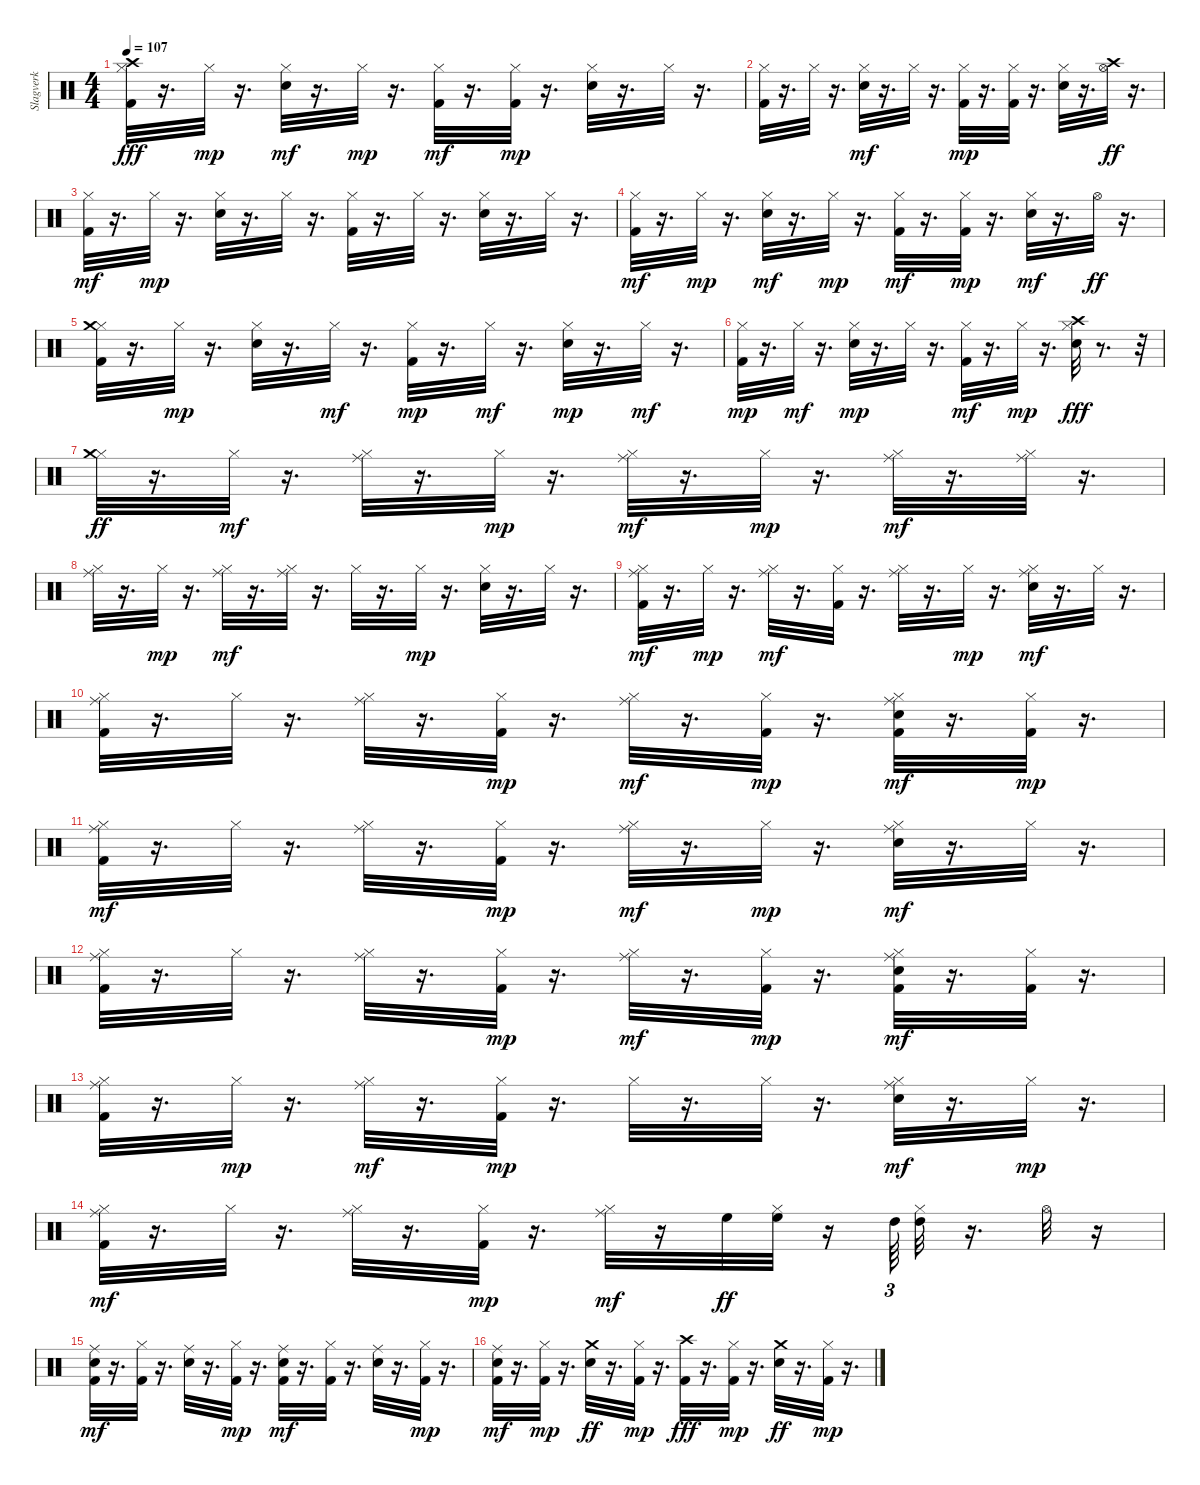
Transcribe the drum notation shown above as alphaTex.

\track ("Slagverk" "Slagverk") {instrument percussion}
\staff {score}
\articulation defaults
\ts (4 4)
\tempo 107
\clef neutral
\ks c
("Kick (hit) 2" "Hi-Hat (closed)" "Crash high (hit)").32{dy fff} r.16{d} "Hi-Hat (closed)".32{dy mp} r.16{d} ("Snare (hit) 2" "Hi-Hat (closed)").32{dy mf} r.16{d} "Hi-Hat (closed)".32{dy mp} r.16{d} ("Kick (hit) 2" "Hi-Hat (closed)").32{dy mf} r.16{d} ("Kick (hit) 2" "Hi-Hat (closed)").32{dy mp} r.16{d} ("Snare (hit) 2" "Hi-Hat (closed)").32 r.16{d} "Hi-Hat (closed)".32 r.16{d} |
("Kick (hit) 2" "Hi-Hat (closed)").32 r.16{d} "Hi-Hat (closed)".32 r.16{d} ("Snare (hit) 2" "Hi-Hat (closed)").32{dy mf} r.16{d} "Hi-Hat (closed)".32 r.16{d} ("Kick (hit) 2" "Hi-Hat (closed)").32{dy mp} r.16{d} ("Kick (hit) 2" "Hi-Hat (closed)").32 r.16{d} ("Snare (hit) 2" "Hi-Hat (closed)").32 r.16{d} ("Hi-Hat (open)" "Crash high (hit)").32{dy ff} r.16{d} |
("Kick (hit) 2" "Hi-Hat (closed)").32{dy mf} r.16{d} "Hi-Hat (closed)".32{dy mp} r.16{d} ("Snare (hit) 2" "Hi-Hat (closed)").32 r.16{d} "Hi-Hat (closed)".32 r.16{d} ("Kick (hit) 2" "Hi-Hat (closed)").32 r.16{d} "Hi-Hat (closed)".32 r.16{d} ("Snare (hit) 2" "Hi-Hat (closed)").32 r.16{d} "Hi-Hat (closed)".32 r.16{d} |
("Kick (hit) 2" "Hi-Hat (closed)").32{dy mf} r.16{d} "Hi-Hat (closed)".32{dy mp} r.16{d} ("Snare (hit) 2" "Hi-Hat (closed)").32{dy mf} r.16{d} "Hi-Hat (closed)".32{dy mp} r.16{d} ("Kick (hit) 2" "Hi-Hat (closed)").32{dy mf} r.16{d} ("Kick (hit) 2" "Hi-Hat (closed)").32{dy mp} r.16{d} ("Snare (hit) 2" "Hi-Hat (closed)").32{dy mf} r.16{d} "Hi-Hat (open)".32{dy ff} r.16{d} |
("Kick (hit) 2" "Hi-Hat (closed)" "Crash medium (hit)").32 r.16{d} "Hi-Hat (closed)".32{dy mp} r.16{d} ("Snare (hit) 2" "Hi-Hat (closed)").32 r.16{d} "Hi-Hat (closed)".32{dy mf} r.16{d} ("Kick (hit) 2" "Hi-Hat (closed)").32{dy mp} r.16{d} "Hi-Hat (closed)".32{dy mf} r.16{d} ("Snare (hit) 2" "Hi-Hat (closed)").32{dy mp} r.16{d} "Hi-Hat (closed)".32{dy mf} r.16{d} |
("Kick (hit) 2" "Hi-Hat (closed)").32{dy mp} r.16{d} "Hi-Hat (closed)".32{dy mf} r.16{d} ("Snare (hit) 2" "Hi-Hat (closed)").32{dy mp} r.16{d} "Hi-Hat (closed)".32 r.16{d} ("Kick (hit) 2" "Hi-Hat (closed)").32{dy mf} r.16{d} "Hi-Hat (closed)".32{dy mp} r.16{d} ("Snare (hit) 2" "Hi-Hat (closed)" "Crash high (hit)").32{dy fff} r.8{d} r.32 |
("Hi-Hat (closed)" "Crash medium (hit)").32{dy ff} r.16{d} "Hi-Hat (closed)".32{dy mf} r.16{d} ("Hi-Hat (closed)" "Ride (middle)").32 r.16{d} "Hi-Hat (closed)".32{dy mp} r.16{d} ("Hi-Hat (closed)" "Ride (middle)").32{dy mf} r.16{d} "Hi-Hat (closed)".32{dy mp} r.16{d} ("Hi-Hat (closed)" "Ride (middle)").32{dy mf} r.16{d} ("Hi-Hat (closed)" "Ride (middle)").32 r.16{d} |
("Hi-Hat (closed)" "Ride (middle)").32 r.16{d} "Hi-Hat (closed)".32{dy mp} r.16{d} ("Hi-Hat (closed)" "Ride (middle)").32{dy mf} r.16{d} ("Hi-Hat (closed)" "Ride (middle)").32 r.16{d} "Hi-Hat (closed)".32 r.16{d} "Hi-Hat (closed)".32{dy mp} r.16{d} ("Snare (hit) 2" "Hi-Hat (closed)").32 r.16{d} "Hi-Hat (closed)".32 r.16{d} |
("Kick (hit) 2" "Hi-Hat (closed)" "Ride (middle)").32{dy mf} r.16{d} "Hi-Hat (closed)".32{dy mp} r.16{d} ("Hi-Hat (closed)" "Ride (middle)").32{dy mf} r.16{d} ("Kick (hit) 2" "Hi-Hat (closed)").32 r.16{d} ("Hi-Hat (closed)" "Ride (middle)").32 r.16{d} "Hi-Hat (closed)".32{dy mp} r.16{d} ("Snare (hit) 2" "Hi-Hat (closed)" "Ride (middle)").32{dy mf} r.16{d} "Hi-Hat (closed)".32 r.16{d} |
("Kick (hit) 2" "Hi-Hat (closed)" "Ride (middle)").32 r.16{d} "Hi-Hat (closed)".32 r.16{d} ("Hi-Hat (closed)" "Ride (middle)").32 r.16{d} ("Kick (hit) 2" "Hi-Hat (closed)").32{dy mp} r.16{d} ("Hi-Hat (closed)" "Ride (middle)").32{dy mf} r.16{d} ("Kick (hit) 2" "Hi-Hat (closed)").32{dy mp} r.16{d} ("Kick (hit) 2" "Snare (hit) 2" "Hi-Hat (closed)" "Ride (middle)").32{dy mf} r.16{d} ("Kick (hit) 2" "Hi-Hat (closed)").32{dy mp} r.16{d} |
("Kick (hit) 2" "Hi-Hat (closed)" "Ride (middle)").32{dy mf} r.16{d} "Hi-Hat (closed)".32 r.16{d} ("Hi-Hat (closed)" "Ride (middle)").32 r.16{d} ("Kick (hit) 2" "Hi-Hat (closed)").32{dy mp} r.16{d} ("Hi-Hat (closed)" "Ride (middle)").32{dy mf} r.16{d} "Hi-Hat (closed)".32{dy mp} r.16{d} ("Snare (hit) 2" "Hi-Hat (closed)" "Ride (middle)").32{dy mf} r.16{d} "Hi-Hat (closed)".32 r.16{d} |
("Kick (hit) 2" "Hi-Hat (closed)" "Ride (middle)").32 r.16{d} "Hi-Hat (closed)".32 r.16{d} ("Hi-Hat (closed)" "Ride (middle)").32 r.16{d} ("Kick (hit) 2" "Hi-Hat (closed)").32{dy mp} r.16{d} ("Hi-Hat (closed)" "Ride (middle)").32{dy mf} r.16{d} ("Kick (hit) 2" "Hi-Hat (closed)").32{dy mp} r.16{d} ("Kick (hit) 2" "Snare (hit) 2" "Hi-Hat (closed)" "Ride (middle)").32{dy mf} r.16{d} ("Kick (hit) 2" "Hi-Hat (closed)").32 r.16{d} |
("Kick (hit) 2" "Hi-Hat (closed)" "Ride (middle)").32 r.16{d} "Hi-Hat (closed)".32{dy mp} r.16{d} ("Hi-Hat (closed)" "Ride (middle)").32{dy mf} r.16{d} ("Kick (hit) 2" "Hi-Hat (closed)").32{dy mp} r.16{d} "Hi-Hat (closed)".32 r.16{d} "Hi-Hat (closed)".32 r.16{d} ("Snare (hit) 2" "Hi-Hat (closed)" "Ride (middle)").32{dy mf} r.16{d} "Hi-Hat (closed)".32{dy mp} r.16{d} |
("Kick (hit) 2" "Hi-Hat (closed)" "Ride (middle)").32{dy mf} r.16{d} "Hi-Hat (closed)".32 r.16{d} ("Hi-Hat (closed)" "Ride (middle)").32 r.16{d} ("Kick (hit) 2" "Hi-Hat (closed)").32{dy mp} r.16{d} ("Hi-Hat (closed)" "Ride (middle)").32{dy mf} r.16 "High Floor Tom (hit)".32{dy ff} ("Hi-Hat (closed)" "High Floor Tom (hit)").32 r.16 "High Tom (hit)".64{tu (3 2)} ("Hi-Hat (closed)" "High Tom (hit)").32 r.16{d} "Hi-Hat (open)".32 r.16 |
("Kick (hit) 2" "Snare (hit) 2" "Ride (middle)").32{dy mf} r.16{d} ("Kick (hit) 2" "Hi-Hat (closed)").32 r.16{d} ("Snare (hit) 2" "Ride (middle)").32 r.16{d} ("Kick (hit) 2" "Hi-Hat (closed)").32{dy mp} r.16{d} ("Kick (hit) 2" "Snare (hit) 2" "Ride (middle)").32{dy mf} r.16{d} ("Kick (hit) 2" "Hi-Hat (closed)").32 r.16{d} ("Snare (hit) 2" "Ride (middle)").32 r.16{d} ("Kick (hit) 2" "Hi-Hat (closed)").32{dy mp} r.16{d} |
("Kick (hit) 2" "Snare (hit) 2" "Ride (middle)").32{dy mf} r.16{d} ("Kick (hit) 2" "Hi-Hat (closed)").32{dy mp} r.16{d} ("Snare (hit) 2" "Crash medium (hit)").32{dy ff} r.16{d} ("Kick (hit) 2" "Hi-Hat (closed)").32{dy mp} r.16{d} ("Kick (hit) 2" "Crash high (hit)").32{dy fff} r.16{d} ("Kick (hit) 2" "Hi-Hat (closed)").32{dy mp} r.16{d} ("Snare (hit) 2" "Crash medium (hit)").32{dy ff} r.16{d} ("Kick (hit) 2" "Hi-Hat (closed)").32{dy mp} r.16{d}
